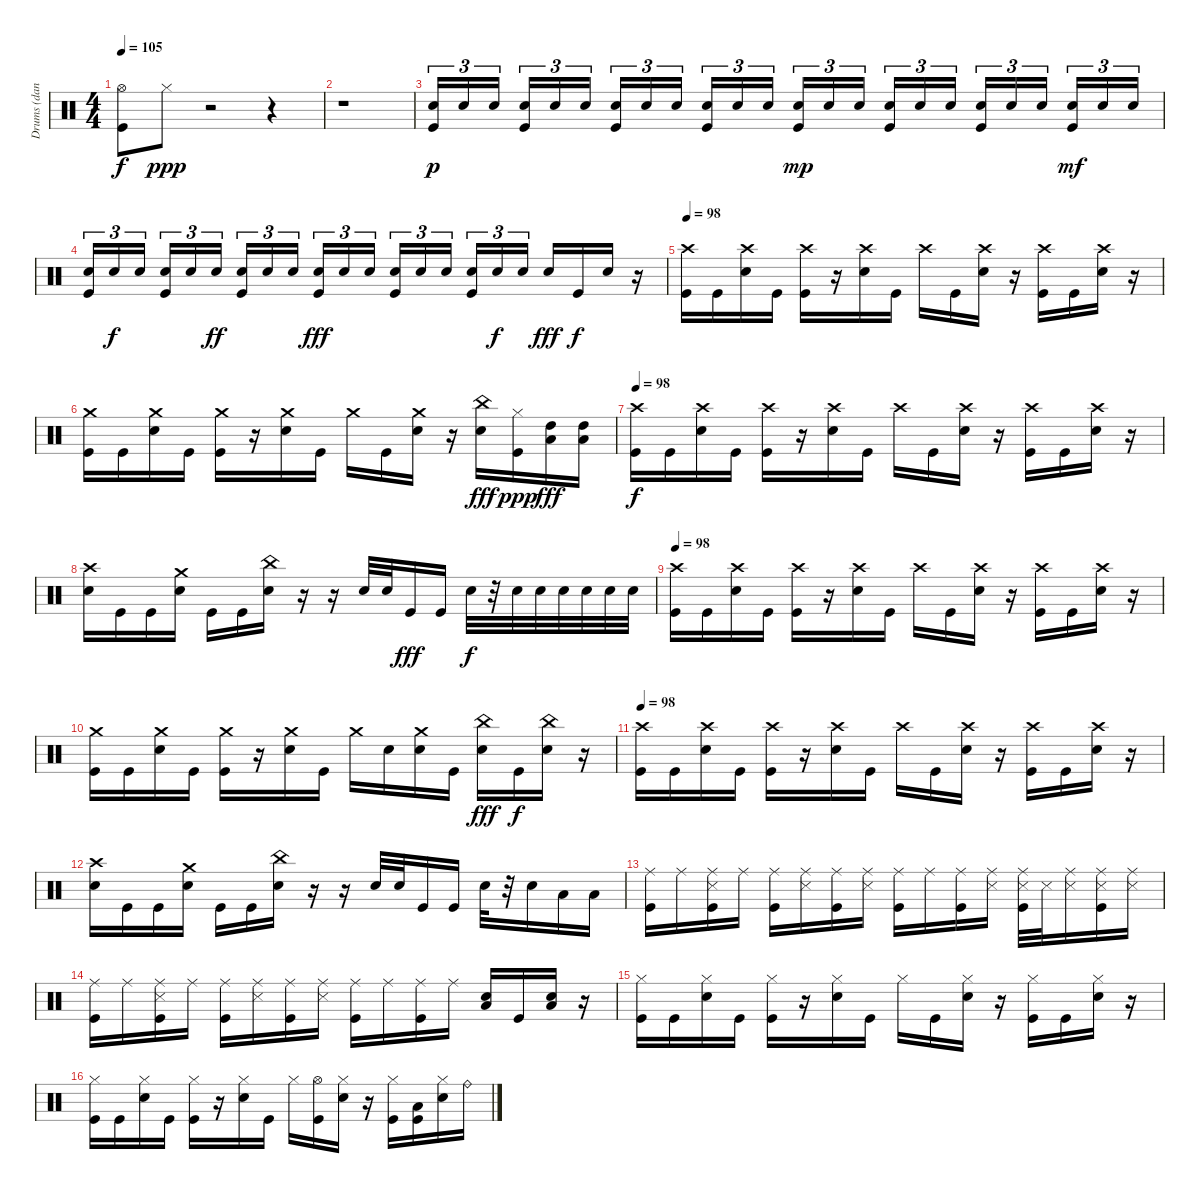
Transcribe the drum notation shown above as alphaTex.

\track ("Drums (dan)" "Drums (dan") {instrument percussion}
\staff {score}
\articulation defaults
\ts (4 4)
\tempo 105
\clef neutral
\ks c
("Hi-Hat (open)" "Kick (hit)").8{dy f} "Hi-Hat (closed)".8{dy ppp} r.2 r.4 |
r.1 |
("Snare (hit) 2" "Kick (hit)").16{tu (3 2) dy p} "Snare (hit) 2".16{tu (3 2)} "Snare (hit) 2".16{tu (3 2)} ("Snare (hit) 2" "Kick (hit)").16{tu (3 2)} "Snare (hit) 2".16{tu (3 2)} "Snare (hit) 2".16{tu (3 2)} ("Snare (hit) 2" "Kick (hit)").16{tu (3 2)} "Snare (hit) 2".16{tu (3 2)} "Snare (hit) 2".16{tu (3 2)} ("Snare (hit) 2" "Kick (hit)").16{tu (3 2)} "Snare (hit) 2".16{tu (3 2)} "Snare (hit) 2".16{tu (3 2)} ("Snare (hit) 2" "Kick (hit)").16{tu (3 2) dy mp} "Snare (hit) 2".16{tu (3 2)} "Snare (hit) 2".16{tu (3 2)} ("Snare (hit) 2" "Kick (hit)").16{tu (3 2)} "Snare (hit) 2".16{tu (3 2)} "Snare (hit) 2".16{tu (3 2)} ("Snare (hit) 2" "Kick (hit)").16{tu (3 2)} "Snare (hit) 2".16{tu (3 2)} "Snare (hit) 2".16{tu (3 2)} ("Snare (hit) 2" "Kick (hit)").16{tu (3 2) dy mf} "Snare (hit) 2".16{tu (3 2)} "Snare (hit) 2".16{tu (3 2)} |
("Snare (hit) 2" "Kick (hit)").16{tu (3 2)} "Snare (hit) 2".16{tu (3 2) dy f} "Snare (hit) 2".16{tu (3 2)} ("Snare (hit) 2" "Kick (hit)").16{tu (3 2)} "Snare (hit) 2".16{tu (3 2)} "Snare (hit) 2".16{tu (3 2) dy ff} ("Snare (hit) 2" "Kick (hit)").16{tu (3 2)} "Snare (hit) 2".16{tu (3 2)} "Snare (hit) 2".16{tu (3 2)} ("Snare (hit) 2" "Kick (hit)").16{tu (3 2) dy fff} "Snare (hit) 2".16{tu (3 2)} "Snare (hit) 2".16{tu (3 2)} ("Snare (hit) 2" "Kick (hit)").16{tu (3 2)} "Snare (hit) 2".16{tu (3 2)} "Snare (hit) 2".16{tu (3 2)} ("Snare (hit) 2" "Kick (hit)").16{tu (3 2)} "Snare (hit) 2".16{tu (3 2) dy f} "Snare (hit) 2".16{tu (3 2)} "Snare (hit) 2".16{dy fff} "Kick (hit)".16{dy f} "Snare (hit) 2".16 r.16 |
\tempo 98
("Crash high (hit)" "Kick (hit)").16 "Kick (hit)".16 ("Crash high (hit)" "Snare (hit) 2").16 "Kick (hit)".16 ("Crash high (hit)" "Kick (hit)").16 r.16 ("Crash high (hit)" "Snare (hit) 2").16 "Kick (hit)".16 "Crash high (hit)".16 "Kick (hit)".16 ("Crash high (hit)" "Snare (hit) 2").16 r.16 ("Crash high (hit)" "Kick (hit)").16 "Kick (hit)".16 ("Crash high (hit)" "Snare (hit) 2").16 r.16 |
("Crash medium (hit)" "Kick (hit)").16 "Kick (hit)".16 ("Crash medium (hit)" "Snare (hit) 2").16 "Kick (hit)".16 ("Crash medium (hit)" "Kick (hit)").16 r.16 ("Crash medium (hit)" "Snare (hit) 2").16 "Kick (hit)".16 "Crash medium (hit)".16 "Kick (hit)".16 ("Crash medium (hit)" "Snare (hit) 2").16 r.16 ("China (hit)" "Snare (hit) 2").16{dy fff} ("Hi-Hat (closed)" "Kick (hit)").16{dy ppp} ("High Tom (hit)" "Low Floor Tom (hit)").16{dy fff} ("High Tom (hit)" "Low Floor Tom (hit)").16 |
\tempo 98
("Crash high (hit)" "Kick (hit)").16{dy f} "Kick (hit)".16 ("Crash high (hit)" "Snare (hit) 2").16 "Kick (hit)".16 ("Crash high (hit)" "Kick (hit)").16 r.16 ("Crash high (hit)" "Snare (hit) 2").16 "Kick (hit)".16 "Crash high (hit)".16 "Kick (hit)".16 ("Crash high (hit)" "Snare (hit) 2").16 r.16 ("Crash high (hit)" "Kick (hit)").16 "Kick (hit)".16 ("Crash high (hit)" "Snare (hit) 2").16 r.16 |
("Crash high (hit)" "Snare (hit) 2").16 "Kick (hit)".16 "Kick (hit)".16 ("Crash medium (hit)" "Snare (hit) 2").16 "Kick (hit)".16 "Kick (hit)".16 ("China (hit)" "Snare (hit) 2").16 r.16 r.16 "Snare (hit) 2".32 "Snare (hit) 2".32 "Kick (hit)".16{dy fff} "Kick (hit)".16 "Snare (hit) 2".32{dy f} r.32 "Snare (hit) 2".32 "Snare (hit) 2".32 "Snare (hit) 2".32 "Snare (hit) 2".32 "Snare (hit) 2".32 "Snare (hit) 2".32 |
\tempo 98
("Crash high (hit)" "Kick (hit)").16 "Kick (hit)".16 ("Crash high (hit)" "Snare (hit) 2").16 "Kick (hit)".16 ("Crash high (hit)" "Kick (hit)").16 r.16 ("Crash high (hit)" "Snare (hit) 2").16 "Kick (hit)".16 "Crash high (hit)".16 "Kick (hit)".16 ("Crash high (hit)" "Snare (hit) 2").16 r.16 ("Crash high (hit)" "Kick (hit)").16 "Kick (hit)".16 ("Crash high (hit)" "Snare (hit) 2").16 r.16 |
("Crash medium (hit)" "Kick (hit)").16 "Kick (hit)".16 ("Crash medium (hit)" "Snare (hit) 2").16 "Kick (hit)".16 ("Crash medium (hit)" "Kick (hit)").16 r.16 ("Crash medium (hit)" "Snare (hit) 2").16 "Kick (hit)".16 "Crash medium (hit)".16 "Snare (hit) 2".16 ("Crash medium (hit)" "Snare (hit) 2").16 "Kick (hit)".16 ("China (hit)" "Snare (hit) 2").16{dy fff} "Kick (hit)".16{dy f} ("China (hit)" "Snare (hit) 2").16 r.16 |
\tempo 98
("Crash high (hit)" "Kick (hit)").16 "Kick (hit)".16 ("Crash high (hit)" "Snare (hit) 2").16 "Kick (hit)".16 ("Crash high (hit)" "Kick (hit)").16 r.16 ("Crash high (hit)" "Snare (hit) 2").16 "Kick (hit)".16 "Crash high (hit)".16 "Kick (hit)".16 ("Crash high (hit)" "Snare (hit) 2").16 r.16 ("Crash high (hit)" "Kick (hit)").16 "Kick (hit)".16 ("Crash high (hit)" "Snare (hit) 2").16 r.16 |
("Crash high (hit)" "Snare (hit) 2").16 "Kick (hit)".16 "Kick (hit)".16 ("Crash medium (hit)" "Snare (hit) 2").16 "Kick (hit)".16 "Kick (hit)".16 ("China (hit)" "Snare (hit) 2").16 r.16 r.16 "Snare (hit) 2".32 "Snare (hit) 2".32 "Kick (hit)".16 "Kick (hit)".16 "Snare (hit) 2".32 r.32 "Snare (hit) 2".16 "Low Tom (hit)".16 "Low Floor Tom (hit)".16 |
("Ride (middle)" "Kick (hit)").16 "Ride (middle)".16 ("Ride (middle)" "Snare (side stick) 3" "Kick (hit)").16 "Ride (middle)".16 ("Ride (middle)" "Kick (hit)").16 ("Ride (middle)" "Snare (side stick) 3").16 ("Ride (middle)" "Kick (hit)").16 ("Ride (middle)" "Snare (side stick) 3").16 ("Ride (middle)" "Kick (hit)").16 "Ride (middle)".16 ("Ride (middle)" "Kick (hit)").16 ("Ride (middle)" "Snare (side stick) 3").16 ("Ride (middle)" "Snare (side stick) 3" "Kick (hit)").32 "Snare (side stick) 3".32 ("Ride (middle)" "Snare (side stick) 3").16 ("Ride (middle)" "Snare (side stick) 3" "Kick (hit)").16 ("Ride (middle)" "Snare (side stick) 3").16 |
("Ride (middle)" "Kick (hit)").16 "Ride (middle)".16 ("Ride (middle)" "Snare (side stick) 3" "Kick (hit)").16 "Ride (middle)".16 ("Ride (middle)" "Kick (hit)").16 ("Ride (middle)" "Snare (side stick) 3").16 ("Ride (middle)" "Kick (hit)").16 ("Ride (middle)" "Snare (side stick) 3").16 ("Ride (middle)" "Kick (hit)").16 "Ride (middle)".16 ("Ride (middle)" "Kick (hit)").16 "Ride (middle)".16 ("Snare (hit) 2" "Low Tom (hit)").16 "Kick (hit)".16 ("Snare (hit) 2" "Low Tom (hit)").16 r.16 |
("Hi-Hat (closed)" "Kick (hit)").16 "Kick (hit)".16 ("Hi-Hat (closed)" "Snare (hit) 2").16 "Kick (hit)".16 ("Hi-Hat (closed)" "Kick (hit)").16 r.16 ("Hi-Hat (closed)" "Snare (hit) 2").16 "Kick (hit)".16 "Hi-Hat (closed)".16 "Kick (hit)".16 ("Hi-Hat (closed)" "Snare (hit) 2").16 r.16 ("Hi-Hat (closed)" "Kick (hit)").16 "Kick (hit)".16 ("Hi-Hat (closed)" "Snare (hit) 2").16 r.16 |
("Hi-Hat (closed)" "Kick (hit)").16 "Kick (hit)".16 ("Hi-Hat (closed)" "Snare (hit) 2").16 "Kick (hit)".16 ("Hi-Hat (closed)" "Kick (hit)").16 r.16 ("Hi-Hat (closed)" "Snare (hit) 2").16 "Kick (hit)".16 "Hi-Hat (closed)".16 ("Hi-Hat (open)" "Kick (hit)").16 ("Hi-Hat (closed)" "Snare (hit) 2").16 r.16 ("Hi-Hat (closed)" "Kick (hit)").16 ("Low Tom (hit)" "Kick (hit)").16 ("Hi-Hat (closed)" "Snare (hit) 2").16 "Ride (bell)".16
